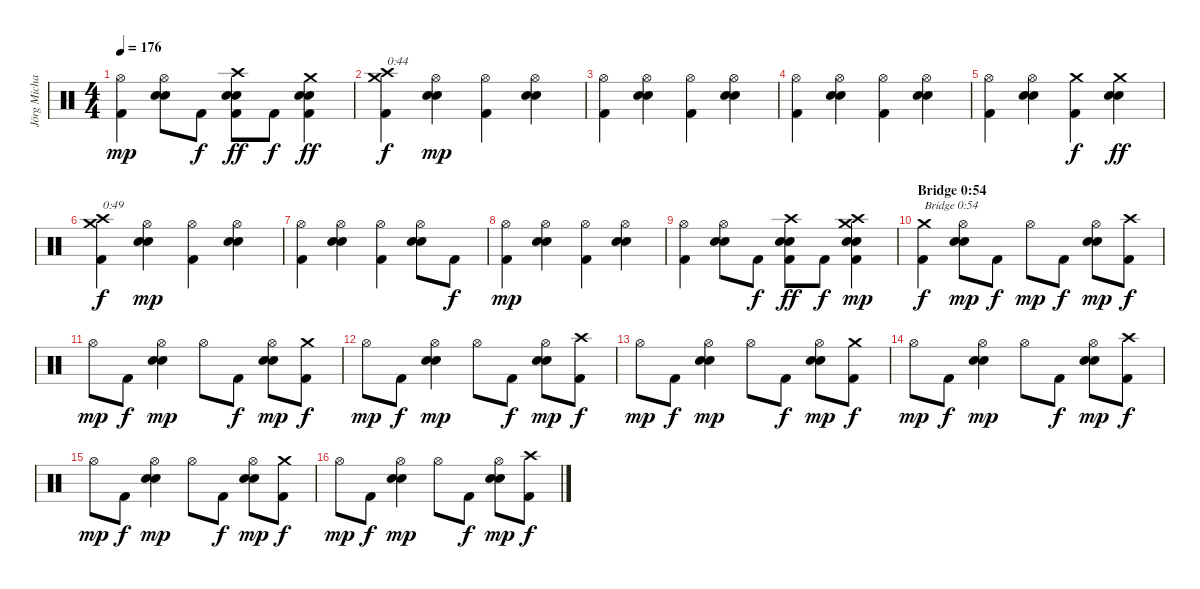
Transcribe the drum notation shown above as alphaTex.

\track ("Jörg Michael" "Jörg Micha") {instrument percussion}
\staff {score}
\articulation defaults
\ts (4 4)
\tempo 176
\clef neutral
\ks c
("Kick (hit) 2" "Hi-Hat (open)").4{dy mp} ("Snare (hit) 2" "Electric Snare (hit)" "Hi-Hat (open)").8 "Kick (hit) 2".8{dy f} ("Kick (hit) 2" "Snare (hit) 2" "Electric Snare (hit)" "Crash high (hit)").8{dy ff} "Kick (hit) 2".8{dy f} ("Kick (hit) 2" "Snare (hit) 2" "Electric Snare (hit)" "Crash medium (hit)").4{dy ff} |
("Kick (hit) 2" "Crash high (hit)" "Crash medium (hit)").4{txt "0:44" dy f} ("Snare (hit) 2" "Electric Snare (hit)" "Hi-Hat (open)").4{dy mp} ("Kick (hit) 2" "Hi-Hat (open)").4 ("Snare (hit) 2" "Electric Snare (hit)" "Hi-Hat (open)").4 |
("Kick (hit) 2" "Hi-Hat (open)").4 ("Snare (hit) 2" "Electric Snare (hit)" "Hi-Hat (open)").4 ("Kick (hit) 2" "Hi-Hat (open)").4 ("Snare (hit) 2" "Electric Snare (hit)" "Hi-Hat (open)").4 |
("Kick (hit) 2" "Hi-Hat (open)").4 ("Snare (hit) 2" "Electric Snare (hit)" "Hi-Hat (open)").4 ("Kick (hit) 2" "Hi-Hat (open)").4 ("Snare (hit) 2" "Electric Snare (hit)" "Hi-Hat (open)").4 |
("Kick (hit) 2" "Hi-Hat (open)").4 ("Snare (hit) 2" "Electric Snare (hit)" "Hi-Hat (open)").4 ("Kick (hit) 2" "Crash medium (hit)").4{dy f} ("Snare (hit) 2" "Electric Snare (hit)" "Crash medium (hit)").4{dy ff} |
("Kick (hit) 2" "Crash high (hit)" "Crash medium (hit)").4{txt "0:49" dy f} ("Snare (hit) 2" "Electric Snare (hit)" "Hi-Hat (open)").4{dy mp} ("Kick (hit) 2" "Hi-Hat (open)").4 ("Snare (hit) 2" "Electric Snare (hit)" "Hi-Hat (open)").4 |
("Kick (hit) 2" "Hi-Hat (open)").4 ("Snare (hit) 2" "Electric Snare (hit)" "Hi-Hat (open)").4 ("Kick (hit) 2" "Hi-Hat (open)").4 ("Snare (hit) 2" "Electric Snare (hit)" "Hi-Hat (open)").8 "Kick (hit) 2".8{dy f} |
("Kick (hit) 2" "Hi-Hat (open)").4{dy mp} ("Snare (hit) 2" "Electric Snare (hit)" "Hi-Hat (open)").4 ("Kick (hit) 2" "Hi-Hat (open)").4 ("Snare (hit) 2" "Electric Snare (hit)" "Hi-Hat (open)").4 |
("Kick (hit) 2" "Hi-Hat (open)").4 ("Snare (hit) 2" "Electric Snare (hit)" "Hi-Hat (open)").8 "Kick (hit) 2".8{dy f} ("Kick (hit) 2" "Snare (hit) 2" "Electric Snare (hit)" "Crash high (hit)").8{dy ff} "Kick (hit) 2".8{dy f} ("Kick (hit) 2" "Snare (hit) 2" "Electric Snare (hit)" "Crash high (hit)" "Crash medium (hit)").4{dy mp} |
\section ("" "Bridge 0:54")
("Kick (hit) 2" "Crash medium (hit)").4{txt "Bridge 0:54" dy f} ("Snare (hit) 2" "Electric Snare (hit)" "Hi-Hat (open)").8{dy mp} "Kick (hit) 2".8{dy f} "Hi-Hat (open)".8{dy mp} "Kick (hit) 2".8{dy f} ("Snare (hit) 2" "Electric Snare (hit)" "Hi-Hat (open)").8{dy mp} ("Kick (hit) 2" "Crash high (hit)").8{dy f} |
"Hi-Hat (open)".8{dy mp} "Kick (hit) 2".8{dy f} ("Snare (hit) 2" "Electric Snare (hit)" "Hi-Hat (open)").4{dy mp} "Hi-Hat (open)".8 "Kick (hit) 2".8{dy f} ("Snare (hit) 2" "Electric Snare (hit)" "Hi-Hat (open)").8{dy mp} ("Kick (hit) 2" "Crash medium (hit)").8{dy f} |
"Hi-Hat (open)".8{dy mp} "Kick (hit) 2".8{dy f} ("Snare (hit) 2" "Electric Snare (hit)" "Hi-Hat (open)").4{dy mp} "Hi-Hat (open)".8 "Kick (hit) 2".8{dy f} ("Snare (hit) 2" "Electric Snare (hit)" "Hi-Hat (open)").8{dy mp} ("Kick (hit) 2" "Crash high (hit)").8{dy f} |
"Hi-Hat (open)".8{dy mp} "Kick (hit) 2".8{dy f} ("Snare (hit) 2" "Electric Snare (hit)" "Hi-Hat (open)").4{dy mp} "Hi-Hat (open)".8 "Kick (hit) 2".8{dy f} ("Snare (hit) 2" "Electric Snare (hit)" "Hi-Hat (open)").8{dy mp} ("Kick (hit) 2" "Crash medium (hit)").8{dy f} |
"Hi-Hat (open)".8{dy mp} "Kick (hit) 2".8{dy f} ("Snare (hit) 2" "Electric Snare (hit)" "Hi-Hat (open)").4{dy mp} "Hi-Hat (open)".8 "Kick (hit) 2".8{dy f} ("Snare (hit) 2" "Electric Snare (hit)" "Hi-Hat (open)").8{dy mp} ("Kick (hit) 2" "Crash high (hit)").8{dy f} |
"Hi-Hat (open)".8{dy mp} "Kick (hit) 2".8{dy f} ("Snare (hit) 2" "Electric Snare (hit)" "Hi-Hat (open)").4{dy mp} "Hi-Hat (open)".8 "Kick (hit) 2".8{dy f} ("Snare (hit) 2" "Electric Snare (hit)" "Hi-Hat (open)").8{dy mp} ("Kick (hit) 2" "Crash medium (hit)").8{dy f} |
"Hi-Hat (open)".8{dy mp} "Kick (hit) 2".8{dy f} ("Snare (hit) 2" "Electric Snare (hit)" "Hi-Hat (open)").4{dy mp} "Hi-Hat (open)".8 "Kick (hit) 2".8{dy f} ("Snare (hit) 2" "Electric Snare (hit)" "Hi-Hat (open)").8{dy mp} ("Kick (hit) 2" "Crash high (hit)").8{dy f}
